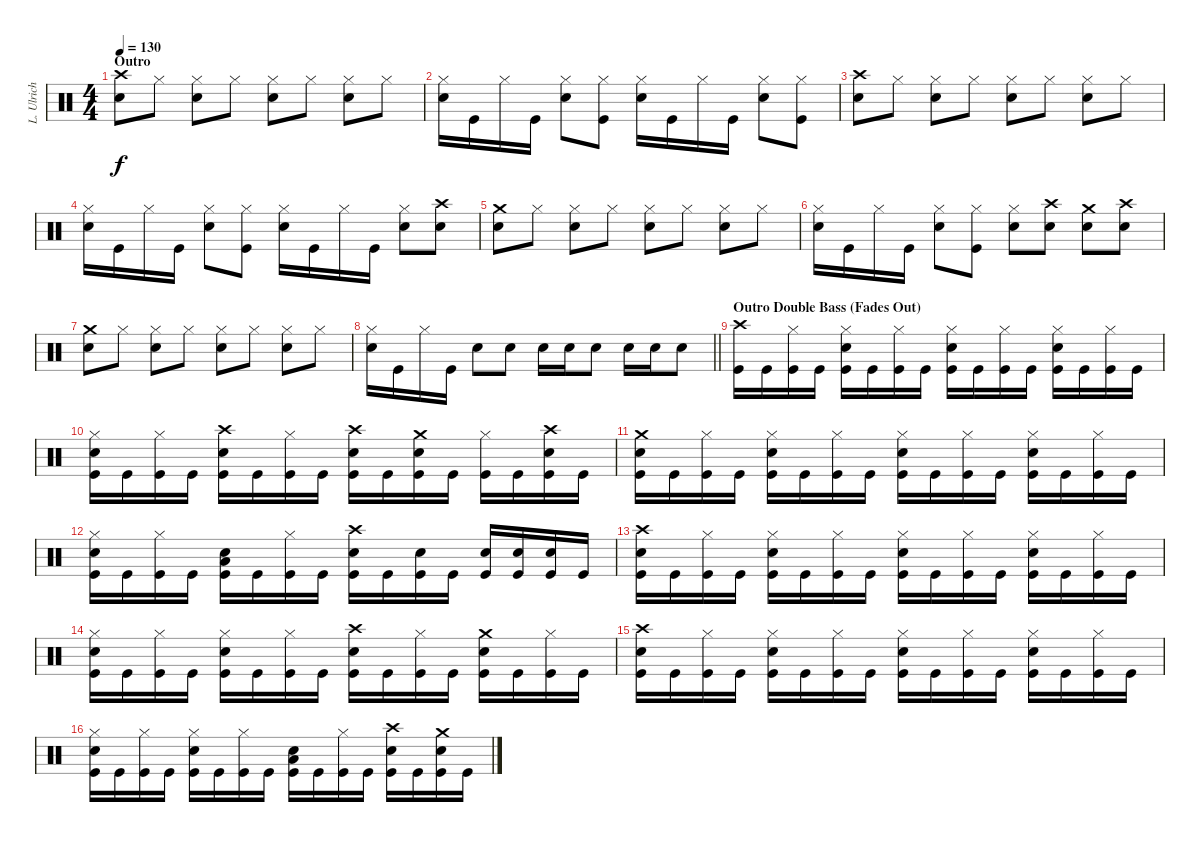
\track ("L. Ulrich" "L. Ulrich") {instrument percussion}
\staff {score}
\articulation defaults
\ts (4 4)
\section ("" "Outro")
\tempo 130
\clef neutral
\ks c
("Crash high (hit)" "Snare (hit) 2").8{dy f} "Hi-Hat (closed)".8 ("Hi-Hat (closed)" "Snare (hit) 2").8 "Hi-Hat (closed)".8 ("Hi-Hat (closed)" "Snare (hit) 2").8 "Hi-Hat (closed)".8 ("Hi-Hat (closed)" "Snare (hit) 2").8 "Hi-Hat (closed)".8 |
("Hi-Hat (closed)" "Snare (hit) 2").16 "Kick (hit)".16 "Hi-Hat (closed)".16 "Kick (hit)".16 ("Hi-Hat (closed)" "Snare (hit) 2").8 ("Hi-Hat (closed)" "Kick (hit)").8 ("Hi-Hat (closed)" "Snare (hit) 2").16 "Kick (hit)".16 "Hi-Hat (closed)".16 "Kick (hit)".16 ("Hi-Hat (closed)" "Snare (hit) 2").8 ("Hi-Hat (closed)" "Kick (hit)").8 |
("Crash high (hit)" "Snare (hit) 2").8 "Hi-Hat (closed)".8 ("Hi-Hat (closed)" "Snare (hit) 2").8 "Hi-Hat (closed)".8 ("Hi-Hat (closed)" "Snare (hit) 2").8 "Hi-Hat (closed)".8 ("Hi-Hat (closed)" "Snare (hit) 2").8 "Hi-Hat (closed)".8 |
("Hi-Hat (closed)" "Snare (hit) 2").16 "Kick (hit)".16 "Hi-Hat (closed)".16 "Kick (hit)".16 ("Hi-Hat (closed)" "Snare (hit) 2").8 ("Hi-Hat (closed)" "Kick (hit)").8 ("Hi-Hat (closed)" "Snare (hit) 2").16 "Kick (hit)".16 "Hi-Hat (closed)".16 "Kick (hit)".16 ("Hi-Hat (closed)" "Snare (hit) 2").8 ("Crash high (hit)" "Snare (hit) 2").8 |
("Crash medium (hit)" "Snare (hit) 2").8 "Hi-Hat (closed)".8 ("Hi-Hat (closed)" "Snare (hit) 2").8 "Hi-Hat (closed)".8 ("Hi-Hat (closed)" "Snare (hit) 2").8 "Hi-Hat (closed)".8 ("Hi-Hat (closed)" "Snare (hit) 2").8 "Hi-Hat (closed)".8 |
("Hi-Hat (closed)" "Snare (hit) 2").16 "Kick (hit)".16 "Hi-Hat (closed)".16 "Kick (hit)".16 ("Hi-Hat (closed)" "Snare (hit) 2").8 ("Hi-Hat (closed)" "Kick (hit)").8 ("Hi-Hat (closed)" "Snare (hit) 2").8 ("Crash high (hit)" "Snare (hit) 2").8 ("Crash medium (hit)" "Snare (hit) 2").8 ("Crash high (hit)" "Snare (hit) 2").8 |
("Crash medium (hit)" "Snare (hit) 2").8 "Hi-Hat (closed)".8 ("Hi-Hat (closed)" "Snare (hit) 2").8 "Hi-Hat (closed)".8 ("Hi-Hat (closed)" "Snare (hit) 2").8 "Hi-Hat (closed)".8 ("Hi-Hat (closed)" "Snare (hit) 2").8 "Hi-Hat (closed)".8 |
\barLineRight lightlight
("Hi-Hat (closed)" "Snare (hit) 2").16 "Kick (hit)".16 "Hi-Hat (closed)".16 "Kick (hit)".16 "Snare (hit) 2".8 "Snare (hit) 2".8 "Snare (hit) 2".16 "Snare (hit) 2".16 "Snare (hit) 2".8 "Snare (hit) 2".16 "Snare (hit) 2".16 "Snare (hit) 2".8 |
\section ("" "Outro Double Bass (Fades Out)")
("Crash high (hit)" "Kick (hit)").16 "Kick (hit)".16 ("Hi-Hat (closed)" "Kick (hit)").16 "Kick (hit)".16 ("Hi-Hat (closed)" "Snare (hit) 2" "Kick (hit)").16 "Kick (hit)".16 ("Hi-Hat (closed)" "Kick (hit)").16 "Kick (hit)".16 ("Hi-Hat (closed)" "Snare (hit) 2" "Kick (hit)").16 "Kick (hit)".16 ("Hi-Hat (closed)" "Kick (hit)").16 "Kick (hit)".16 ("Hi-Hat (closed)" "Snare (hit) 2" "Kick (hit)").16 "Kick (hit)".16 ("Hi-Hat (closed)" "Kick (hit)").16 "Kick (hit)".16 |
("Hi-Hat (closed)" "Snare (hit) 2" "Kick (hit)").16 "Kick (hit)".16 ("Hi-Hat (closed)" "Kick (hit)").16 "Kick (hit)".16 ("Crash high (hit)" "Snare (hit) 2" "Kick (hit)").16 "Kick (hit)".16 ("Hi-Hat (closed)" "Kick (hit)").16 "Kick (hit)".16 ("Crash high (hit)" "Snare (hit) 2" "Kick (hit)").16 "Kick (hit)".16 ("Crash medium (hit)" "Snare (hit) 2" "Kick (hit)").16 "Kick (hit)".16 ("Hi-Hat (closed)" "Kick (hit)").16 "Kick (hit)".16 ("Crash high (hit)" "Snare (hit) 2" "Kick (hit)").16 "Kick (hit)".16 |
("Crash medium (hit)" "Snare (hit) 2" "Kick (hit)").16 "Kick (hit)".16 ("Hi-Hat (closed)" "Kick (hit)").16 "Kick (hit)".16 ("Hi-Hat (closed)" "Snare (hit) 2" "Kick (hit)").16 "Kick (hit)".16 ("Hi-Hat (closed)" "Kick (hit)").16 "Kick (hit)".16 ("Hi-Hat (closed)" "Snare (hit) 2" "Kick (hit)").16 "Kick (hit)".16 ("Hi-Hat (closed)" "Kick (hit)").16 "Kick (hit)".16 ("Hi-Hat (closed)" "Snare (hit) 2" "Kick (hit)").16 "Kick (hit)".16 ("Hi-Hat (closed)" "Kick (hit)").16 "Kick (hit)".16 |
("Hi-Hat (closed)" "Snare (hit) 2" "Kick (hit)").16 "Kick (hit)".16 ("Hi-Hat (closed)" "Kick (hit)").16 "Kick (hit)".16 ("Low Tom (hit)" "Snare (hit) 2" "Kick (hit)").16 "Kick (hit)".16 ("Hi-Hat (closed)" "Kick (hit)").16 "Kick (hit)".16 ("Crash high (hit)" "Snare (hit) 2" "Kick (hit)").16 "Kick (hit)".16 ("Snare (hit) 2" "Kick (hit)").16 "Kick (hit)".16 ("Snare (hit) 2" "Kick (hit)").16 ("Snare (hit) 2" "Kick (hit)").16 ("Snare (hit) 2" "Kick (hit)").16 "Kick (hit)".16 |
("Crash high (hit)" "Snare (hit) 2" "Kick (hit)").16 "Kick (hit)".16 ("Hi-Hat (closed)" "Kick (hit)").16 "Kick (hit)".16 ("Hi-Hat (closed)" "Snare (hit) 2" "Kick (hit)").16 "Kick (hit)".16 ("Hi-Hat (closed)" "Kick (hit)").16 "Kick (hit)".16 ("Hi-Hat (closed)" "Snare (hit) 2" "Kick (hit)").16 "Kick (hit)".16 ("Hi-Hat (closed)" "Kick (hit)").16 "Kick (hit)".16 ("Hi-Hat (closed)" "Snare (hit) 2" "Kick (hit)").16 "Kick (hit)".16 ("Hi-Hat (closed)" "Kick (hit)").16 "Kick (hit)".16 |
("Hi-Hat (closed)" "Snare (hit) 2" "Kick (hit)").16 "Kick (hit)".16 ("Hi-Hat (closed)" "Kick (hit)").16 "Kick (hit)".16 ("Hi-Hat (closed)" "Snare (hit) 2" "Kick (hit)").16 "Kick (hit)".16 ("Hi-Hat (closed)" "Kick (hit)").16 "Kick (hit)".16 ("Crash high (hit)" "Snare (hit) 2" "Kick (hit)").16 "Kick (hit)".16 ("Hi-Hat (closed)" "Kick (hit)").16 "Kick (hit)".16 ("Crash medium (hit)" "Snare (hit) 2" "Kick (hit)").16 "Kick (hit)".16 ("Hi-Hat (closed)" "Kick (hit)").16 "Kick (hit)".16 |
("Crash high (hit)" "Snare (hit) 2" "Kick (hit)").16 "Kick (hit)".16 ("Hi-Hat (closed)" "Kick (hit)").16 "Kick (hit)".16 ("Hi-Hat (closed)" "Snare (hit) 2" "Kick (hit)").16 "Kick (hit)".16 ("Hi-Hat (closed)" "Kick (hit)").16 "Kick (hit)".16 ("Hi-Hat (closed)" "Snare (hit) 2" "Kick (hit)").16 "Kick (hit)".16 ("Hi-Hat (closed)" "Kick (hit)").16 "Kick (hit)".16 ("Hi-Hat (closed)" "Snare (hit) 2" "Kick (hit)").16 "Kick (hit)".16 ("Hi-Hat (closed)" "Kick (hit)").16 "Kick (hit)".16 |
("Hi-Hat (closed)" "Snare (hit) 2" "Kick (hit)").16 "Kick (hit)".16 ("Hi-Hat (closed)" "Kick (hit)").16 "Kick (hit)".16 ("Hi-Hat (closed)" "Snare (hit) 2" "Kick (hit)").16 "Kick (hit)".16 ("Hi-Hat (closed)" "Kick (hit)").16 "Kick (hit)".16 ("Low Tom (hit)" "Snare (hit) 2" "Kick (hit)").16 "Kick (hit)".16 ("Hi-Hat (closed)" "Kick (hit)").16 "Kick (hit)".16 ("Crash high (hit)" "Snare (hit) 2" "Kick (hit)").16 "Kick (hit)".16 ("Crash medium (hit)" "Snare (hit) 2" "Kick (hit)").16 "Kick (hit)".16
